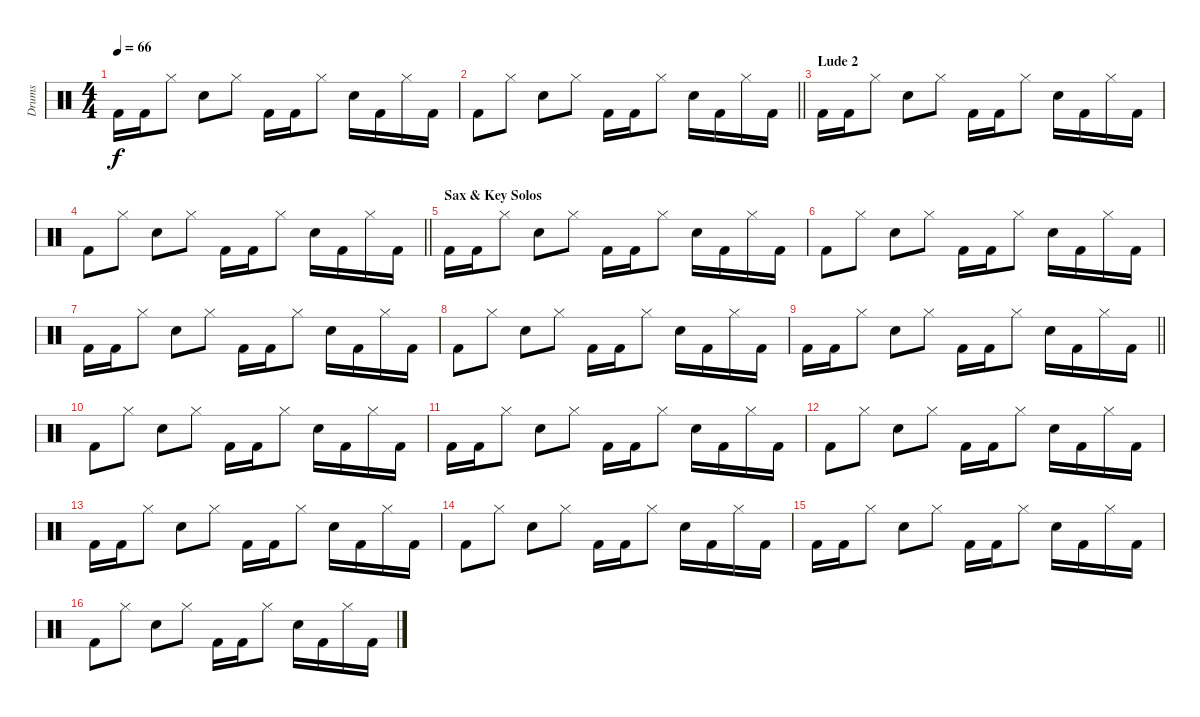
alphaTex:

\track ("Drums" "Drums") {instrument percussion}
\staff {score}
\articulation defaults
\ts (4 4)
\tempo 66
\clef neutral
\ks c "Kick (hit) 2".16{dy f} "Kick (hit) 2".16 "Hi-Hat (closed)".8 "Snare (hit) 2".8 "Hi-Hat (closed)".8 "Kick (hit) 2".16 "Kick (hit) 2".16 "Hi-Hat (closed)".8 "Snare (hit) 2".16 "Kick (hit) 2".16 "Hi-Hat (closed)".16 "Kick (hit) 2".16
|
\barLineRight lightlight "Kick (hit) 2".8 "Hi-Hat (closed)".8 "Snare (hit) 2".8 "Hi-Hat (closed)".8 "Kick (hit) 2".16 "Kick (hit) 2".16 "Hi-Hat (closed)".8 "Snare (hit) 2".16 "Kick (hit) 2".16 "Hi-Hat (closed)".16 "Kick (hit) 2".16
|
\section ("" "Lude 2")
"Kick (hit) 2".16 "Kick (hit) 2".16 "Hi-Hat (closed)".8 "Snare (hit) 2".8 "Hi-Hat (closed)".8 "Kick (hit) 2".16 "Kick (hit) 2".16 "Hi-Hat (closed)".8 "Snare (hit) 2".16 "Kick (hit) 2".16 "Hi-Hat (closed)".16 "Kick (hit) 2".16 |
\barLineRight lightlight "Kick (hit) 2".8 "Hi-Hat (closed)".8 "Snare (hit) 2".8 "Hi-Hat (closed)".8 "Kick (hit) 2".16 "Kick (hit) 2".16 "Hi-Hat (closed)".8 "Snare (hit) 2".16 "Kick (hit) 2".16 "Hi-Hat (closed)".16 "Kick (hit) 2".16
|
\section ("" "Sax & Key Solos")
"Kick (hit) 2".16 "Kick (hit) 2".16 "Hi-Hat (closed)".8 "Snare (hit) 2".8 "Hi-Hat (closed)".8 "Kick (hit) 2".16 "Kick (hit) 2".16 "Hi-Hat (closed)".8 "Snare (hit) 2".16 "Kick (hit) 2".16 "Hi-Hat (closed)".16 "Kick (hit) 2".16 |
"Kick (hit) 2".8 "Hi-Hat (closed)".8 "Snare (hit) 2".8 "Hi-Hat (closed)".8 "Kick (hit) 2".16 "Kick (hit) 2".16 "Hi-Hat (closed)".8 "Snare (hit) 2".16 "Kick (hit) 2".16 "Hi-Hat (closed)".16 "Kick (hit) 2".16 |
"Kick (hit) 2".16 "Kick (hit) 2".16 "Hi-Hat (closed)".8 "Snare (hit) 2".8 "Hi-Hat (closed)".8 "Kick (hit) 2".16 "Kick (hit) 2".16 "Hi-Hat (closed)".8 "Snare (hit) 2".16 "Kick (hit) 2".16 "Hi-Hat (closed)".16 "Kick (hit) 2".16 |
"Kick (hit) 2".8 "Hi-Hat (closed)".8 "Snare (hit) 2".8 "Hi-Hat (closed)".8 "Kick (hit) 2".16 "Kick (hit) 2".16 "Hi-Hat (closed)".8 "Snare (hit) 2".16 "Kick (hit) 2".16 "Hi-Hat (closed)".16 "Kick (hit) 2".16 |
\barLineRight lightlight "Kick (hit) 2".16 "Kick (hit) 2".16 "Hi-Hat (closed)".8 "Snare (hit) 2".8 "Hi-Hat (closed)".8 "Kick (hit) 2".16 "Kick (hit) 2".16 "Hi-Hat (closed)".8 "Snare (hit) 2".16 "Kick (hit) 2".16 "Hi-Hat (closed)".16 "Kick (hit) 2".16
|
"Kick (hit) 2".8 "Hi-Hat (closed)".8 "Snare (hit) 2".8 "Hi-Hat (closed)".8 "Kick (hit) 2".16 "Kick (hit) 2".16 "Hi-Hat (closed)".8 "Snare (hit) 2".16 "Kick (hit) 2".16 "Hi-Hat (closed)".16 "Kick (hit) 2".16 |
"Kick (hit) 2".16 "Kick (hit) 2".16 "Hi-Hat (closed)".8 "Snare (hit) 2".8 "Hi-Hat (closed)".8 "Kick (hit) 2".16 "Kick (hit) 2".16 "Hi-Hat (closed)".8 "Snare (hit) 2".16 "Kick (hit) 2".16 "Hi-Hat (closed)".16 "Kick (hit) 2".16 |
"Kick (hit) 2".8 "Hi-Hat (closed)".8 "Snare (hit) 2".8 "Hi-Hat (closed)".8 "Kick (hit) 2".16 "Kick (hit) 2".16 "Hi-Hat (closed)".8 "Snare (hit) 2".16 "Kick (hit) 2".16 "Hi-Hat (closed)".16 "Kick (hit) 2".16 |
"Kick (hit) 2".16 "Kick (hit) 2".16 "Hi-Hat (closed)".8 "Snare (hit) 2".8 "Hi-Hat (closed)".8 "Kick (hit) 2".16 "Kick (hit) 2".16 "Hi-Hat (closed)".8 "Snare (hit) 2".16 "Kick (hit) 2".16 "Hi-Hat (closed)".16 "Kick (hit) 2".16 |
"Kick (hit) 2".8 "Hi-Hat (closed)".8 "Snare (hit) 2".8 "Hi-Hat (closed)".8 "Kick (hit) 2".16 "Kick (hit) 2".16 "Hi-Hat (closed)".8 "Snare (hit) 2".16 "Kick (hit) 2".16 "Hi-Hat (closed)".16 "Kick (hit) 2".16 |
"Kick (hit) 2".16 "Kick (hit) 2".16 "Hi-Hat (closed)".8 "Snare (hit) 2".8 "Hi-Hat (closed)".8 "Kick (hit) 2".16 "Kick (hit) 2".16 "Hi-Hat (closed)".8 "Snare (hit) 2".16 "Kick (hit) 2".16 "Hi-Hat (closed)".16 "Kick (hit) 2".16 |
"Kick (hit) 2".8 "Hi-Hat (closed)".8 "Snare (hit) 2".8 "Hi-Hat (closed)".8 "Kick (hit) 2".16 "Kick (hit) 2".16 "Hi-Hat (closed)".8 "Snare (hit) 2".16 "Kick (hit) 2".16 "Hi-Hat (closed)".16 "Kick (hit) 2".16
